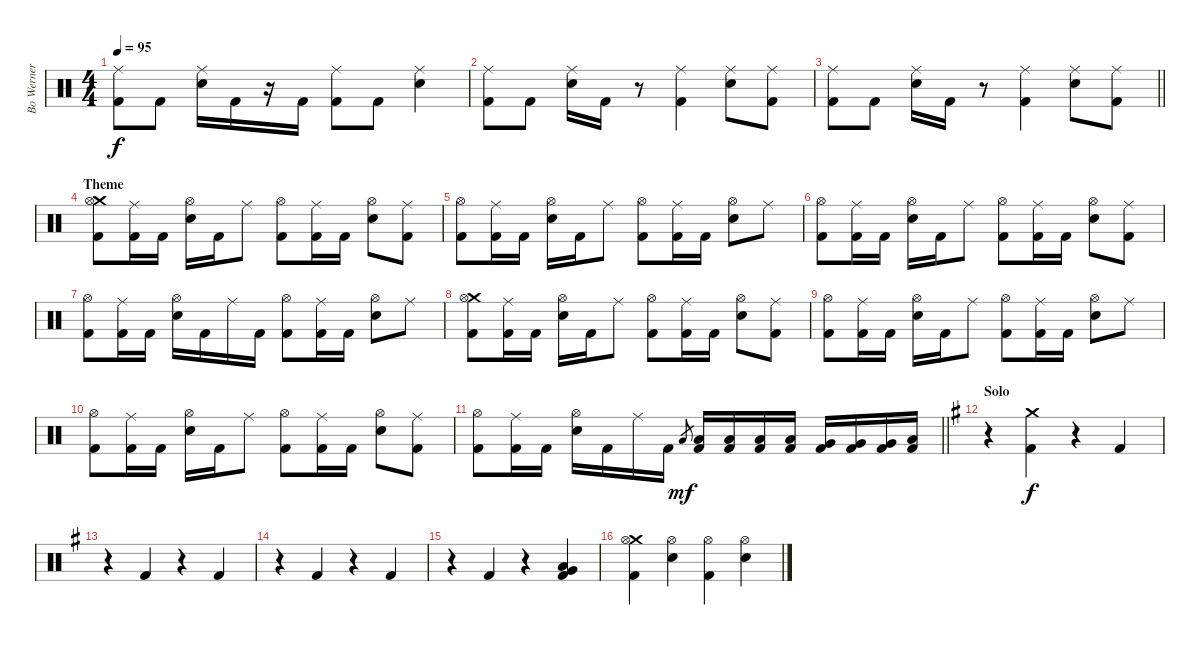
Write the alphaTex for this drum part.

\track ("Bo Werner" "Bo Werner") {instrument percussion}
\staff {score}
\articulation defaults
\ts (4 4)
\tempo 95
\clef neutral
\ks c
("Ride (middle)" "Kick (hit) 2").8{dy f} "Kick (hit) 2".8 ("Ride (middle)" "Snare (hit) 2").16 "Kick (hit) 2".16 r.16 "Kick (hit) 2".16 ("Ride (middle)" "Kick (hit) 2").8 "Kick (hit) 2".8 ("Ride (middle)" "Snare (hit) 2").4 |
("Ride (middle)" "Kick (hit) 2").8 "Kick (hit) 2".8 ("Ride (middle)" "Snare (hit) 2").16 "Kick (hit) 2".16 r.8 ("Ride (middle)" "Kick (hit) 2").4 ("Ride (middle)" "Snare (hit) 2").8 ("Ride (middle)" "Kick (hit) 2").8 |
\barLineRight lightlight
("Ride (middle)" "Kick (hit) 2").8 "Kick (hit) 2".8 ("Ride (middle)" "Snare (hit) 2").16 "Kick (hit) 2".16 r.8 ("Ride (middle)" "Kick (hit) 2").4 ("Ride (middle)" "Snare (hit) 2").8 ("Ride (middle)" "Kick (hit) 2").8 |
\section ("" "Theme")
("Crash medium (hit)" "Hi-Hat (open)" "Kick (hit) 2").8 ("Ride (middle)" "Kick (hit) 2").16 "Kick (hit) 2".16 ("Hi-Hat (open)" "Snare (hit) 2").16 "Kick (hit) 2".16 "Ride (middle)".8 ("Hi-Hat (open)" "Kick (hit) 2").8 ("Ride (middle)" "Kick (hit) 2").16 "Kick (hit) 2".16 ("Hi-Hat (open)" "Snare (hit) 2").8 ("Ride (middle)" "Kick (hit) 2").8 |
("Hi-Hat (open)" "Kick (hit) 2").8 ("Ride (middle)" "Kick (hit) 2").16 "Kick (hit) 2".16 ("Hi-Hat (open)" "Snare (hit) 2").16 "Kick (hit) 2".16 "Ride (middle)".8 ("Hi-Hat (open)" "Kick (hit) 2").8 ("Ride (middle)" "Kick (hit) 2").16 "Kick (hit) 2".16 ("Hi-Hat (open)" "Snare (hit) 2").8 "Ride (middle)".8 |
("Hi-Hat (open)" "Kick (hit) 2").8 ("Ride (middle)" "Kick (hit) 2").16 "Kick (hit) 2".16 ("Hi-Hat (open)" "Snare (hit) 2").16 "Kick (hit) 2".16 "Ride (middle)".8 ("Hi-Hat (open)" "Kick (hit) 2").8 ("Ride (middle)" "Kick (hit) 2").16 "Kick (hit) 2".16 ("Hi-Hat (open)" "Snare (hit) 2").8 ("Ride (middle)" "Kick (hit) 2").8 |
("Hi-Hat (open)" "Kick (hit) 2").8 ("Ride (middle)" "Kick (hit) 2").16 "Kick (hit) 2".16 ("Hi-Hat (open)" "Snare (hit) 2").16 "Kick (hit) 2".16 "Ride (middle)".16 "Kick (hit) 2".16 ("Hi-Hat (open)" "Kick (hit) 2").8 ("Ride (middle)" "Kick (hit) 2").16 "Kick (hit) 2".16 ("Hi-Hat (open)" "Snare (hit) 2").8 "Ride (middle)".8 |
("Crash medium (hit)" "Hi-Hat (open)" "Kick (hit) 2").8 ("Ride (middle)" "Kick (hit) 2").16 "Kick (hit) 2".16 ("Hi-Hat (open)" "Snare (hit) 2").16 "Kick (hit) 2".16 "Ride (middle)".8 ("Hi-Hat (open)" "Kick (hit) 2").8 ("Ride (middle)" "Kick (hit) 2").16 "Kick (hit) 2".16 ("Hi-Hat (open)" "Snare (hit) 2").8 ("Ride (middle)" "Kick (hit) 2").8 |
("Hi-Hat (open)" "Kick (hit) 2").8 ("Ride (middle)" "Kick (hit) 2").16 "Kick (hit) 2".16 ("Hi-Hat (open)" "Snare (hit) 2").16 "Kick (hit) 2".16 "Ride (middle)".8 ("Hi-Hat (open)" "Kick (hit) 2").8 ("Ride (middle)" "Kick (hit) 2").16 "Kick (hit) 2".16 ("Hi-Hat (open)" "Snare (hit) 2").8 "Ride (middle)".8 |
("Hi-Hat (open)" "Kick (hit) 2").8 ("Ride (middle)" "Kick (hit) 2").16 "Kick (hit) 2".16 ("Hi-Hat (open)" "Snare (hit) 2").16 "Kick (hit) 2".16 "Ride (middle)".8 ("Hi-Hat (open)" "Kick (hit) 2").8 ("Ride (middle)" "Kick (hit) 2").16 "Kick (hit) 2".16 ("Hi-Hat (open)" "Snare (hit) 2").8 ("Ride (middle)" "Kick (hit) 2").8 |
\barLineRight lightlight
("Hi-Hat (open)" "Kick (hit) 2").8 ("Ride (middle)" "Kick (hit) 2").16 "Kick (hit) 2".16 ("Hi-Hat (open)" "Snare (hit) 2").16 "Kick (hit) 2".16 "Ride (middle)".16 "Kick (hit) 2".16 "Low Tom (hit)".8{gr dy mf} ("Low Tom (hit)" "Kick (hit) 2").16 ("Low Tom (hit)" "Kick (hit) 2").16 ("Low Tom (hit)" "Kick (hit) 2").16 ("Low Tom (hit)" "Kick (hit) 2").16 ("Very Low Tom (hit)" "Kick (hit) 2").16 ("Very Low Tom (hit)" "Kick (hit) 2").16 ("Very Low Tom (hit)" "Kick (hit) 2").16 ("Low Floor Tom (hit)" "Kick (hit) 2").16 |
\section ("" "Solo")
\ks g
r.4 ("Crash medium (hit)" "Kick (hit) 2").4{dy f} r.4 "Kick (hit) 2".4 |
r.4 "Kick (hit) 2".4 r.4 "Kick (hit) 2".4 |
r.4 "Kick (hit) 2".4 r.4 "Kick (hit) 2".4 |
r.4 "Kick (hit) 2".4 r.4 ("Low Tom (hit)" "Very Low Tom (hit)" "Kick (hit) 2").4 |
("Crash medium (hit)" "Hi-Hat (open)" "Kick (hit) 2").4 ("Hi-Hat (open)" "Snare (hit) 2").4 ("Hi-Hat (open)" "Kick (hit) 2").4 ("Hi-Hat (open)" "Snare (hit) 2").4
